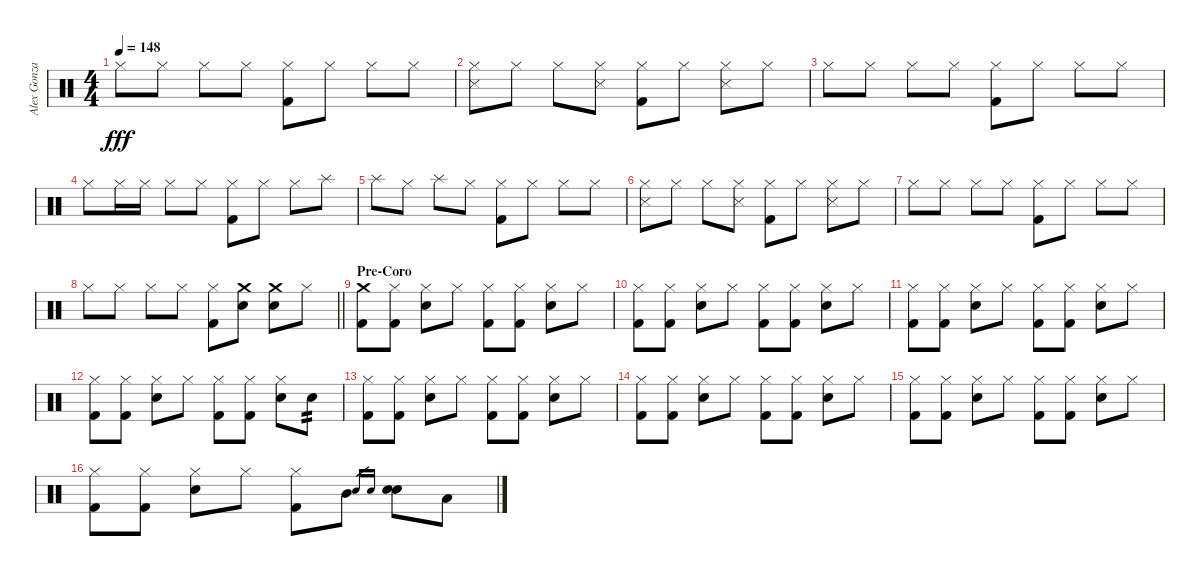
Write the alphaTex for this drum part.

\track ("Alex Gonzalez" "Alex Gonza") {instrument percussion}
\staff {score}
\articulation defaults
\ts (4 4)
\tempo 148
\clef neutral
\ks c "Hi-Hat (closed)".8{dy fff} "Hi-Hat (closed)".8 "Hi-Hat (closed)".8 "Hi-Hat (closed)".8
("Hi-Hat (closed)" "Kick (hit) 2").8 "Hi-Hat (closed)".8 "Hi-Hat (closed)".8 "Hi-Hat (closed)".8 |
("Hi-Hat (closed)" "Snare (side stick) 3").8 "Hi-Hat (closed)".8 "Hi-Hat (closed)".8 ("Hi-Hat (closed)" "Snare (side stick) 3").8 ("Hi-Hat (closed)" "Kick (hit) 2").8 "Hi-Hat (closed)".8 ("Hi-Hat (closed)" "Snare (side stick) 3").8 "Hi-Hat (closed)".8 |
"Hi-Hat (closed)".8 "Hi-Hat (closed)".8 "Hi-Hat (closed)".8 "Hi-Hat (closed)".8 ("Hi-Hat (closed)" "Kick (hit) 2").8 "Hi-Hat (closed)".8 "Hi-Hat (closed)".8 "Hi-Hat (closed)".8 |
"Hi-Hat (closed)".8 "Hi-Hat (closed)".16 "Hi-Hat (closed)".16 "Hi-Hat (closed)".8 "Hi-Hat (closed)".8 ("Hi-Hat (closed)" "Kick (hit) 2").8 "Hi-Hat (closed)".8 "Hi-Hat (closed)".8 "Splash (hit)".8 |
"Splash (hit)".8 "Hi-Hat (closed)".8 "Splash (hit)".8 "Hi-Hat (closed)".8 ("Hi-Hat (closed)" "Kick (hit) 2").8 "Hi-Hat (closed)".8 "Hi-Hat (closed)".8 "Hi-Hat (closed)".8 |
("Hi-Hat (closed)" "Snare (side stick) 3").8 "Hi-Hat (closed)".8 "Hi-Hat (closed)".8 ("Hi-Hat (closed)" "Snare (side stick) 3").8 ("Hi-Hat (closed)" "Kick (hit) 2").8 "Hi-Hat (closed)".8 ("Hi-Hat (closed)" "Snare (side stick) 3").8 "Hi-Hat (closed)".8 |
"Hi-Hat (closed)".8 "Hi-Hat (closed)".8 "Hi-Hat (closed)".8 "Hi-Hat (closed)".8 ("Hi-Hat (closed)" "Kick (hit) 2").8 "Hi-Hat (closed)".8 "Hi-Hat (closed)".8 "Hi-Hat (closed)".8 |
\barLineRight lightlight "Hi-Hat (closed)".8 "Hi-Hat (closed)".8 "Hi-Hat (closed)".8 "Hi-Hat (closed)".8
("Hi-Hat (closed)" "Kick (hit) 2").8 ("Crash medium (hit)" "Snare (hit) 2").8 ("Crash medium (hit)" "Snare (hit) 2").8 "Hi-Hat (closed)".8 |
\section ("" "Pre-Coro")
("Crash medium (hit)" "Kick (hit) 2").8 ("Hi-Hat (closed)" "Kick (hit) 2").8 ("Hi-Hat (closed)" "Snare (hit) 2").8 "Hi-Hat (closed)".8 ("Hi-Hat (closed)" "Kick (hit) 2").8 ("Hi-Hat (closed)" "Kick (hit) 2").8 ("Hi-Hat (closed)" "Snare (hit) 2").8 "Hi-Hat (closed)".8 |
("Hi-Hat (closed)" "Kick (hit) 2").8 ("Hi-Hat (closed)" "Kick (hit) 2").8 ("Hi-Hat (closed)" "Snare (hit) 2").8 "Hi-Hat (closed)".8 ("Hi-Hat (closed)" "Kick (hit) 2").8 ("Hi-Hat (closed)" "Kick (hit) 2").8 ("Hi-Hat (closed)" "Snare (hit) 2").8 "Hi-Hat (closed)".8 |
("Hi-Hat (closed)" "Kick (hit) 2").8 ("Hi-Hat (closed)" "Kick (hit) 2").8 ("Hi-Hat (closed)" "Snare (hit) 2").8 "Hi-Hat (closed)".8 ("Hi-Hat (closed)" "Kick (hit) 2").8 ("Hi-Hat (closed)" "Kick (hit) 2").8 ("Hi-Hat (closed)" "Snare (hit) 2").8 "Hi-Hat (closed)".8 |
("Hi-Hat (closed)" "Kick (hit) 2").8 ("Hi-Hat (closed)" "Kick (hit) 2").8 ("Hi-Hat (closed)" "Snare (hit) 2").8 "Hi-Hat (closed)".8 ("Hi-Hat (closed)" "Kick (hit) 2").8 ("Hi-Hat (closed)" "Kick (hit) 2").8 ("Hi-Hat (closed)" "Snare (hit) 2").8 "Snare (hit) 2".8{tp 2} |
("Hi-Hat (closed)" "Kick (hit) 2").8 ("Hi-Hat (closed)" "Kick (hit) 2").8 ("Hi-Hat (closed)" "Snare (hit) 2").8 "Hi-Hat (closed)".8 ("Hi-Hat (closed)" "Kick (hit) 2").8 ("Hi-Hat (closed)" "Kick (hit) 2").8 ("Hi-Hat (closed)" "Snare (hit) 2").8 "Hi-Hat (closed)".8 |
("Hi-Hat (closed)" "Kick (hit) 2").8 ("Hi-Hat (closed)" "Kick (hit) 2").8 ("Hi-Hat (closed)" "Snare (hit) 2").8 "Hi-Hat (closed)".8 ("Hi-Hat (closed)" "Kick (hit) 2").8 ("Hi-Hat (closed)" "Kick (hit) 2").8 ("Hi-Hat (closed)" "Snare (hit) 2").8 "Hi-Hat (closed)".8 |
("Hi-Hat (closed)" "Kick (hit) 2").8 ("Hi-Hat (closed)" "Kick (hit) 2").8 ("Hi-Hat (closed)" "Snare (hit) 2").8 "Hi-Hat (closed)".8 ("Hi-Hat (closed)" "Kick (hit) 2").8 ("Hi-Hat (closed)" "Kick (hit) 2").8 ("Hi-Hat (closed)" "Snare (hit) 2").8 "Hi-Hat (closed)".8 |
("Hi-Hat (closed)" "Kick (hit) 2").8 ("Hi-Hat (closed)" "Kick (hit) 2").8 ("Hi-Hat (closed)" "Snare (hit) 2").8 "Hi-Hat (closed)".8 ("Hi-Hat (closed)" "Kick (hit) 2").8 "Mid Tom (hit)".8 "Snare (hit) 2".16{gr} "Snare (hit) 2".16{gr} ("Snare (hit) 2" "Snare (hit) 2").8 "Low Tom (hit)".8
